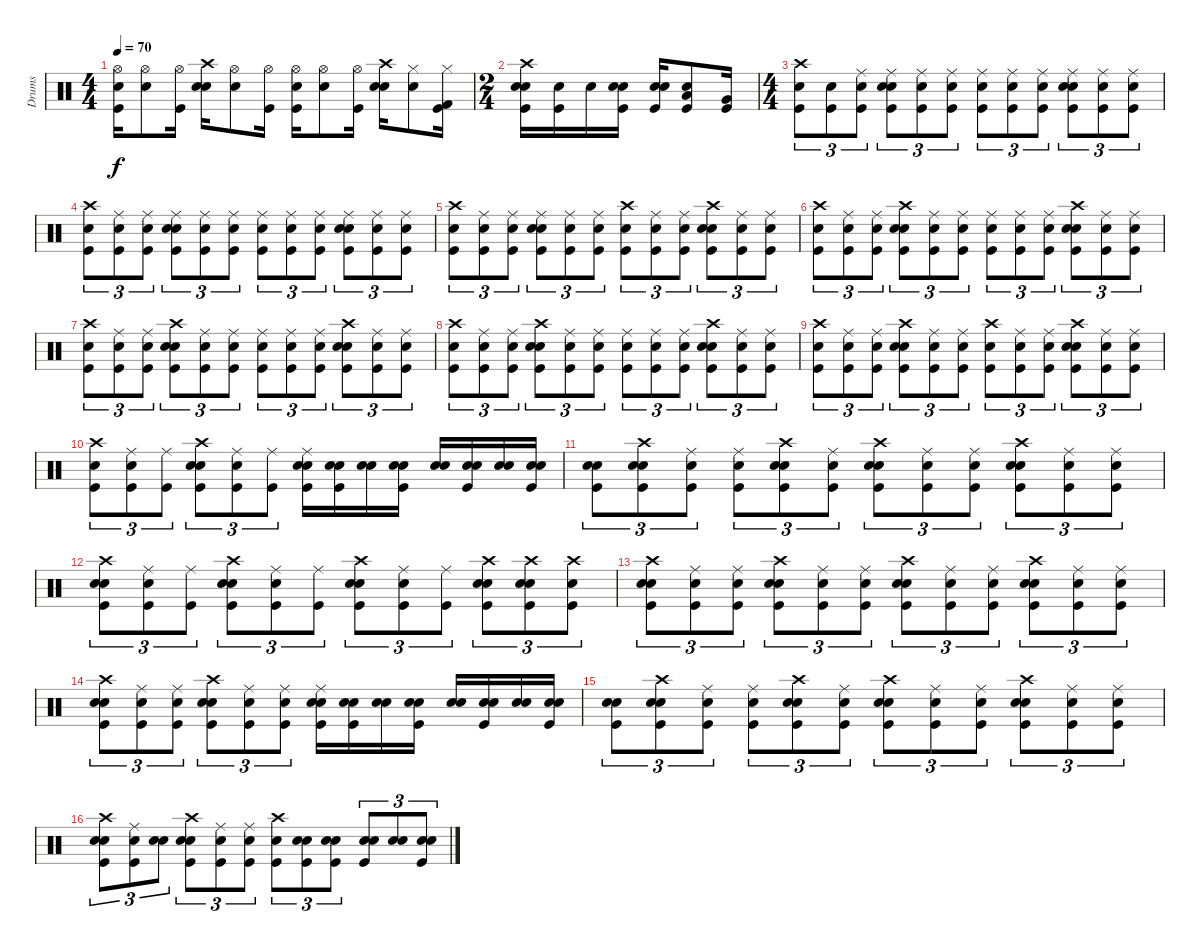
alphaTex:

\track ("Drums" "Drums") {instrument percussion}
\staff {score}
\articulation defaults
\ts (4 4)
\tempo 70
\clef neutral
\ks c
("Snare (hit)" "Hi-Hat (open)" "Kick (hit)").16{dy f} ("Snare (hit)" "Hi-Hat (open)").8 ("Kick (hit)" "Hi-Hat (open)").16 ("Snare (hit)" "Snare (hit) 2" "Crash high (hit)").16 ("Snare (hit)" "Hi-Hat (open)").8 ("Kick (hit)" "Hi-Hat (open)").16 ("Snare (hit)" "Kick (hit)" "Hi-Hat (open)").16 ("Snare (hit)" "Hi-Hat (open)").8 ("Kick (hit)" "Hi-Hat (open)").16 ("Snare (hit)" "Snare (hit) 2" "Crash high (hit)").16 ("Snare (hit)" "Hi-Hat (closed)").8 ("Hi-Hat (closed)" "Kick (hit) 2" "Kick (hit)").16 |
\ts (2 4)
("Snare (hit)" "Kick (hit)" "Snare (hit) 2" "Crash high (hit)").16 ("Snare (hit)" "Kick (hit)").16 "Snare (hit) 2".16 ("Snare (hit)" "Snare (hit) 2" "Kick (hit)").16 ("Snare (hit)" "Snare (hit) 2" "Kick (hit)").16 ("Snare (hit)" "Low Tom (hit)" "Kick (hit)").8 ("Very Low Tom (hit)" "Kick (hit)").16 |
\ts (4 4)
("Snare (hit)" "Kick (hit)" "Crash high (hit)").8{tu (3 2)} ("Snare (hit)" "Kick (hit)").8{tu (3 2)} ("Snare (hit)" "Ride (middle)" "Kick (hit)").8{tu (3 2)} ("Snare (hit)" "Kick (hit)" "Snare (hit) 2" "Ride (middle)").8{tu (3 2)} ("Snare (hit)" "Kick (hit)" "Ride (middle)").8{tu (3 2)} ("Snare (hit)" "Kick (hit)" "Ride (middle)").8{tu (3 2)} ("Snare (hit)" "Kick (hit)" "Ride (middle)").8{tu (3 2)} ("Snare (hit)" "Kick (hit)" "Ride (middle)").8{tu (3 2)} ("Snare (hit)" "Kick (hit)" "Ride (middle)").8{tu (3 2)} ("Snare (hit)" "Ride (middle)" "Snare (hit) 2" "Kick (hit)").8{tu (3 2)} ("Snare (hit)" "Kick (hit)" "Ride (middle)").8{tu (3 2)} ("Snare (hit)" "Kick (hit)" "Ride (middle)").8{tu (3 2)} |
("Snare (hit)" "Crash high (hit)" "Kick (hit)").8{tu (3 2)} ("Snare (hit)" "Kick (hit)" "Ride (middle)").8{tu (3 2)} ("Snare (hit)" "Kick (hit)" "Ride (middle)").8{tu (3 2)} ("Snare (hit)" "Ride (middle)" "Snare (hit) 2" "Kick (hit)").8{tu (3 2)} ("Snare (hit)" "Kick (hit)" "Ride (middle)").8{tu (3 2)} ("Snare (hit)" "Kick (hit)" "Ride (middle)").8{tu (3 2)} ("Snare (hit)" "Kick (hit)" "Ride (middle)").8{tu (3 2)} ("Snare (hit)" "Kick (hit)" "Ride (middle)").8{tu (3 2)} ("Snare (hit)" "Kick (hit)" "Ride (middle)").8{tu (3 2)} ("Snare (hit)" "Ride (middle)" "Snare (hit) 2" "Kick (hit)").8{tu (3 2)} ("Snare (hit)" "Kick (hit)" "Ride (middle)").8{tu (3 2)} ("Snare (hit)" "Kick (hit)" "Ride (middle)").8{tu (3 2)} |
("Snare (hit)" "Crash high (hit)" "Kick (hit)").8{tu (3 2)} ("Snare (hit)" "Kick (hit)" "Ride (middle)").8{tu (3 2)} ("Snare (hit)" "Kick (hit)" "Ride (middle)").8{tu (3 2)} ("Snare (hit)" "Ride (middle)" "Snare (hit) 2" "Kick (hit)").8{tu (3 2)} ("Snare (hit)" "Kick (hit)" "Ride (middle)").8{tu (3 2)} ("Snare (hit)" "Kick (hit)" "Ride (middle)").8{tu (3 2)} ("Snare (hit)" "Kick (hit)" "Crash high (hit)").8{tu (3 2)} ("Snare (hit)" "Kick (hit)" "Ride (middle)").8{tu (3 2)} ("Snare (hit)" "Kick (hit)" "Ride (middle)").8{tu (3 2)} ("Snare (hit)" "Crash high (hit)" "Snare (hit) 2" "Kick (hit)").8{tu (3 2)} ("Snare (hit)" "Kick (hit)" "Ride (middle)").8{tu (3 2)} ("Snare (hit)" "Kick (hit)" "Ride (middle)").8{tu (3 2)} |
("Snare (hit)" "Crash high (hit)" "Kick (hit)").8{tu (3 2)} ("Snare (hit)" "Kick (hit)" "Ride (middle)").8{tu (3 2)} ("Snare (hit)" "Kick (hit)" "Ride (middle)").8{tu (3 2)} ("Snare (hit)" "Crash high (hit)" "Snare (hit) 2" "Kick (hit)").8{tu (3 2)} ("Snare (hit)" "Kick (hit)" "Ride (middle)").8{tu (3 2)} ("Snare (hit)" "Kick (hit)" "Ride (middle)").8{tu (3 2)} ("Snare (hit)" "Kick (hit)" "Ride (middle)").8{tu (3 2)} ("Snare (hit)" "Kick (hit)" "Ride (middle)").8{tu (3 2)} ("Snare (hit)" "Kick (hit)" "Ride (middle)").8{tu (3 2)} ("Snare (hit)" "Crash high (hit)" "Snare (hit) 2" "Kick (hit)").8{tu (3 2)} ("Snare (hit)" "Kick (hit)" "Ride (middle)").8{tu (3 2)} ("Snare (hit)" "Kick (hit)" "Ride (middle)").8{tu (3 2)} |
("Snare (hit)" "Crash high (hit)" "Kick (hit)").8{tu (3 2)} ("Snare (hit)" "Kick (hit)" "Ride (middle)").8{tu (3 2)} ("Snare (hit)" "Kick (hit)" "Ride (middle)").8{tu (3 2)} ("Snare (hit)" "Crash high (hit)" "Snare (hit) 2" "Kick (hit)").8{tu (3 2)} ("Snare (hit)" "Kick (hit)" "Ride (middle)").8{tu (3 2)} ("Snare (hit)" "Kick (hit)" "Ride (middle)").8{tu (3 2)} ("Snare (hit)" "Kick (hit)" "Ride (middle)").8{tu (3 2)} ("Snare (hit)" "Kick (hit)" "Ride (middle)").8{tu (3 2)} ("Snare (hit)" "Kick (hit)" "Ride (middle)").8{tu (3 2)} ("Snare (hit)" "Crash high (hit)" "Snare (hit) 2" "Kick (hit)").8{tu (3 2)} ("Snare (hit)" "Kick (hit)" "Ride (middle)").8{tu (3 2)} ("Snare (hit)" "Kick (hit)" "Ride (middle)").8{tu (3 2)} |
("Snare (hit)" "Crash high (hit)" "Kick (hit)").8{tu (3 2)} ("Snare (hit)" "Kick (hit)" "Ride (middle)").8{tu (3 2)} ("Snare (hit)" "Kick (hit)" "Ride (middle)").8{tu (3 2)} ("Snare (hit)" "Crash high (hit)" "Snare (hit) 2" "Kick (hit)").8{tu (3 2)} ("Snare (hit)" "Kick (hit)" "Ride (middle)").8{tu (3 2)} ("Snare (hit)" "Kick (hit)" "Ride (middle)").8{tu (3 2)} ("Snare (hit)" "Kick (hit)" "Ride (middle)").8{tu (3 2)} ("Snare (hit)" "Kick (hit)" "Ride (middle)").8{tu (3 2)} ("Snare (hit)" "Kick (hit)" "Ride (middle)").8{tu (3 2)} ("Snare (hit)" "Crash high (hit)" "Snare (hit) 2" "Kick (hit)").8{tu (3 2)} ("Snare (hit)" "Kick (hit)" "Ride (middle)").8{tu (3 2)} ("Snare (hit)" "Kick (hit)" "Ride (middle)").8{tu (3 2)} |
("Snare (hit)" "Crash high (hit)" "Kick (hit)").8{tu (3 2)} ("Snare (hit)" "Ride (middle)" "Kick (hit)").8{tu (3 2)} ("Snare (hit)" "Ride (middle)" "Kick (hit)").8{tu (3 2)} ("Snare (hit)" "Kick (hit)" "Snare (hit) 2" "Crash high (hit)").8{tu (3 2)} ("Snare (hit)" "Ride (middle)" "Kick (hit)").8{tu (3 2)} ("Snare (hit)" "Ride (middle)" "Kick (hit)").8{tu (3 2)} ("Snare (hit)" "Crash high (hit)" "Kick (hit)").8{tu (3 2)} ("Snare (hit)" "Ride (middle)" "Kick (hit)").8{tu (3 2)} ("Snare (hit)" "Ride (middle)" "Kick (hit)").8{tu (3 2)} ("Snare (hit)" "Kick (hit)" "Snare (hit) 2" "Crash high (hit)").8{tu (3 2)} ("Snare (hit)" "Ride (middle)" "Kick (hit)").8{tu (3 2)} ("Snare (hit)" "Ride (middle)" "Kick (hit)").8{tu (3 2)} |
("Snare (hit)" "Crash high (hit)" "Kick (hit)").8{tu (3 2)} ("Snare (hit)" "Ride (middle)" "Kick (hit)").8{tu (3 2)} ("Ride (middle)" "Kick (hit)").8{tu (3 2)} ("Snare (hit)" "Kick (hit)" "Snare (hit) 2" "Crash high (hit)").8{tu (3 2)} ("Snare (hit)" "Ride (middle)" "Kick (hit)").8{tu (3 2)} ("Ride (middle)" "Kick (hit)").8{tu (3 2)} ("Snare (hit)" "Kick (hit)" "Snare (hit) 2" "Ride (middle)").16 ("Snare (hit)" "Snare (hit) 2" "Kick (hit)").16 ("Snare (hit)" "Snare (hit) 2").16 ("Snare (hit)" "Snare (hit) 2" "Kick (hit)").16 ("Snare (hit)" "Snare (hit) 2").16 ("Snare (hit)" "Snare (hit) 2" "Kick (hit)").16 ("Snare (hit)" "Snare (hit) 2").16 ("Snare (hit)" "Snare (hit) 2" "Kick (hit)").16 |
("Snare (hit)" "Snare (hit) 2" "Kick (hit)").8{tu (3 2)} ("Snare (hit)" "Kick (hit)" "Snare (hit) 2" "Crash high (hit)").8{tu (3 2)} ("Snare (hit)" "Kick (hit)" "Ride (middle)").8{tu (3 2)} ("Snare (hit)" "Kick (hit)" "Ride (middle)").8{tu (3 2)} ("Snare (hit)" "Kick (hit)" "Crash high (hit)" "Snare (hit) 2").8{tu (3 2)} ("Snare (hit)" "Kick (hit)" "Ride (middle)").8{tu (3 2)} ("Snare (hit)" "Kick (hit)" "Crash high (hit)" "Snare (hit) 2").8{tu (3 2)} ("Snare (hit)" "Kick (hit)" "Ride (middle)").8{tu (3 2)} ("Snare (hit)" "Kick (hit)" "Ride (middle)").8{tu (3 2)} ("Snare (hit)" "Kick (hit)" "Crash high (hit)" "Snare (hit) 2").8{tu (3 2)} ("Snare (hit)" "Kick (hit)" "Ride (middle)").8{tu (3 2)} ("Snare (hit)" "Kick (hit)" "Ride (middle)").8{tu (3 2)} |
("Snare (hit)" "Kick (hit)" "Snare (hit) 2" "Crash high (hit)").8{tu (3 2)} ("Snare (hit)" "Kick (hit)" "Ride (middle)").8{tu (3 2)} ("Kick (hit)" "Ride (middle)").8{tu (3 2)} ("Snare (hit)" "Kick (hit)" "Crash high (hit)" "Snare (hit) 2").8{tu (3 2)} ("Snare (hit)" "Kick (hit)" "Ride (middle)").8{tu (3 2)} ("Kick (hit)" "Ride (middle)").8{tu (3 2)} ("Snare (hit)" "Kick (hit)" "Crash high (hit)" "Snare (hit) 2").8{tu (3 2)} ("Snare (hit)" "Kick (hit)" "Ride (middle)").8{tu (3 2)} ("Kick (hit)" "Ride (middle)").8{tu (3 2)} ("Snare (hit)" "Kick (hit)" "Crash high (hit)" "Snare (hit) 2").8{tu (3 2)} ("Snare (hit)" "Crash high (hit)" "Snare (hit) 2" "Kick (hit)").8{tu (3 2)} ("Crash high (hit)" "Snare (hit) 2" "Kick (hit)").8{tu (3 2)} |
("Snare (hit)" "Kick (hit)" "Snare (hit) 2" "Crash high (hit)").8{tu (3 2)} ("Snare (hit)" "Kick (hit)" "Ride (middle)").8{tu (3 2)} ("Snare (hit)" "Kick (hit)" "Ride (middle)").8{tu (3 2)} ("Snare (hit)" "Kick (hit)" "Crash high (hit)" "Snare (hit) 2").8{tu (3 2)} ("Snare (hit)" "Kick (hit)" "Ride (middle)").8{tu (3 2)} ("Snare (hit)" "Kick (hit)" "Ride (middle)").8{tu (3 2)} ("Snare (hit)" "Kick (hit)" "Crash high (hit)" "Snare (hit) 2").8{tu (3 2)} ("Snare (hit)" "Kick (hit)" "Ride (middle)").8{tu (3 2)} ("Snare (hit)" "Kick (hit)" "Ride (middle)").8{tu (3 2)} ("Snare (hit)" "Kick (hit)" "Crash high (hit)" "Snare (hit) 2").8{tu (3 2)} ("Snare (hit)" "Kick (hit)" "Ride (middle)").8{tu (3 2)} ("Snare (hit)" "Kick (hit)" "Ride (middle)").8{tu (3 2)} |
("Snare (hit)" "Kick (hit)" "Snare (hit) 2" "Crash high (hit)").8{tu (3 2)} ("Snare (hit)" "Kick (hit)" "Ride (middle)").8{tu (3 2)} ("Snare (hit)" "Kick (hit)" "Ride (middle)").8{tu (3 2)} ("Snare (hit)" "Kick (hit)" "Crash high (hit)" "Snare (hit) 2").8{tu (3 2)} ("Snare (hit)" "Kick (hit)" "Ride (middle)").8{tu (3 2)} ("Snare (hit)" "Kick (hit)" "Ride (middle)").8{tu (3 2)} ("Snare (hit)" "Kick (hit)" "Ride (middle)" "Snare (hit) 2").16 ("Snare (hit)" "Snare (hit) 2" "Kick (hit)").16 ("Snare (hit)" "Snare (hit) 2").16 ("Snare (hit)" "Snare (hit) 2" "Kick (hit)").16 ("Snare (hit)" "Snare (hit) 2").16 ("Snare (hit)" "Snare (hit) 2" "Kick (hit)").16 ("Snare (hit)" "Snare (hit) 2").16 ("Snare (hit)" "Snare (hit) 2" "Kick (hit)").16 |
("Snare (hit)" "Snare (hit) 2" "Kick (hit)").8{tu (3 2)} ("Snare (hit)" "Kick (hit)" "Snare (hit) 2" "Crash high (hit)").8{tu (3 2)} ("Snare (hit)" "Kick (hit)" "Ride (middle)").8{tu (3 2)} ("Snare (hit)" "Kick (hit)" "Ride (middle)").8{tu (3 2)} ("Snare (hit)" "Kick (hit)" "Crash high (hit)" "Snare (hit) 2").8{tu (3 2)} ("Snare (hit)" "Kick (hit)" "Ride (middle)").8{tu (3 2)} ("Snare (hit)" "Kick (hit)" "Crash high (hit)" "Snare (hit) 2").8{tu (3 2)} ("Snare (hit)" "Kick (hit)" "Ride (middle)").8{tu (3 2)} ("Snare (hit)" "Kick (hit)" "Ride (middle)").8{tu (3 2)} ("Snare (hit)" "Kick (hit)" "Crash high (hit)" "Snare (hit) 2").8{tu (3 2)} ("Snare (hit)" "Kick (hit)" "Ride (middle)").8{tu (3 2)} ("Snare (hit)" "Kick (hit)" "Ride (middle)").8{tu (3 2)} |
("Snare (hit)" "Kick (hit)" "Snare (hit) 2" "Crash high (hit)").8{tu (3 2)} ("Snare (hit)" "Ride (middle)" "Kick (hit)").8{tu (3 2)} ("Snare (hit)" "Snare (hit) 2").8{tu (3 2)} ("Snare (hit)" "Kick (hit)" "Snare (hit) 2" "Crash high (hit)").8{tu (3 2)} ("Snare (hit)" "Ride (middle)" "Kick (hit)").8{tu (3 2)} ("Snare (hit)" "Ride (middle)" "Kick (hit)").8{tu (3 2)} ("Snare (hit)" "Crash high (hit)" "Kick (hit)").8{tu (3 2)} ("Snare (hit)" "Snare (hit) 2" "Kick (hit)").8{tu (3 2)} ("Snare (hit)" "Snare (hit) 2" "Kick (hit)").8{tu (3 2)} ("Snare (hit)" "Snare (hit) 2" "Kick (hit)").8{tu (3 2)} ("Snare (hit)" "Snare (hit) 2").8{tu (3 2)} ("Snare (hit)" "Snare (hit) 2" "Kick (hit)").8{tu (3 2)}
